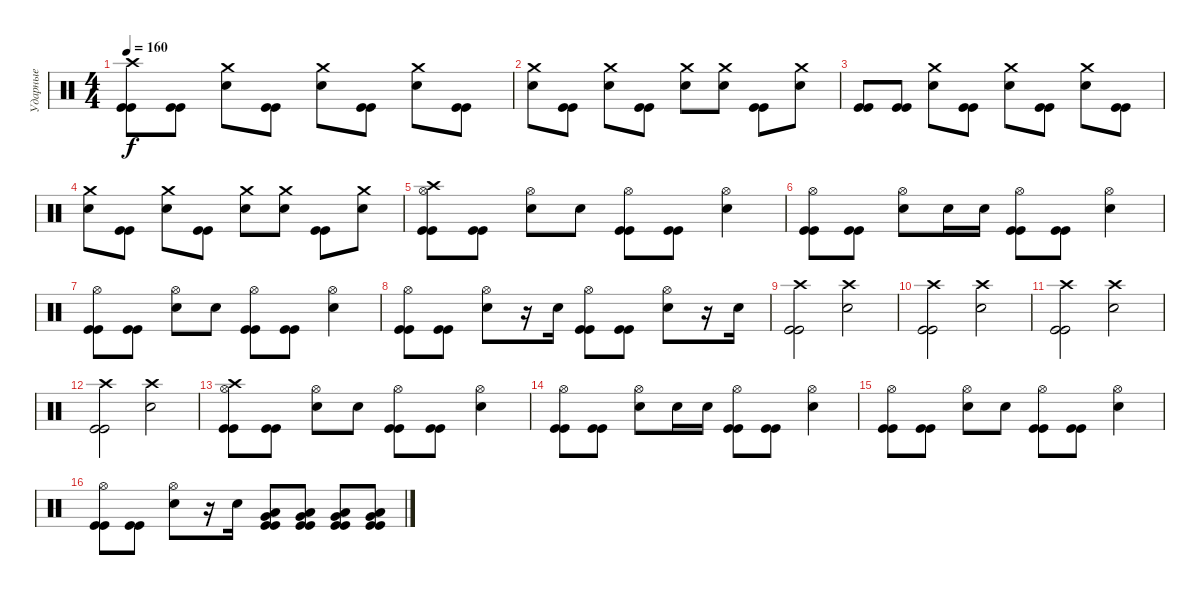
\track ("Ударные" "Ударные") {instrument percussion}
\staff {score}
\articulation defaults
\ts (4 4)
\tempo 160
\clef neutral
\ks c
("Crash high (hit)" "Kick (hit)" "Kick (hit)").8{dy f} ("Kick (hit)" "Kick (hit)").8 ("Crash medium (hit)" "Electric Snare (hit)").8 ("Kick (hit)" "Kick (hit)").8 ("Crash medium (hit)" "Electric Snare (hit)").8 ("Kick (hit)" "Kick (hit)").8 ("Crash medium (hit)" "Electric Snare (hit)").8 ("Kick (hit)" "Kick (hit)").8 |
("Crash medium (hit)" "Electric Snare (hit)").8 ("Kick (hit)" "Kick (hit)").8 ("Crash medium (hit)" "Electric Snare (hit)").8 ("Kick (hit)" "Kick (hit)").8 ("Crash medium (hit)" "Electric Snare (hit)").8 ("Crash medium (hit)" "Electric Snare (hit)").8 ("Kick (hit)" "Kick (hit)").8 ("Crash medium (hit)" "Electric Snare (hit)").8 |
("Kick (hit)" "Kick (hit)").8 ("Kick (hit)" "Kick (hit)").8 ("Crash medium (hit)" "Electric Snare (hit)").8 ("Kick (hit)" "Kick (hit)").8 ("Crash medium (hit)" "Electric Snare (hit)").8 ("Kick (hit)" "Kick (hit)").8 ("Crash medium (hit)" "Electric Snare (hit)").8 ("Kick (hit)" "Kick (hit)").8 |
("Crash medium (hit)" "Electric Snare (hit)").8 ("Kick (hit)" "Kick (hit)").8 ("Crash medium (hit)" "Electric Snare (hit)").8 ("Kick (hit)" "Kick (hit)").8 ("Crash medium (hit)" "Electric Snare (hit)").8 ("Crash medium (hit)" "Electric Snare (hit)").8 ("Kick (hit)" "Kick (hit)").8 ("Crash medium (hit)" "Electric Snare (hit)").8 |
("Crash high (hit)" "Hi-Hat (open)" "Kick (hit)" "Kick (hit)").8 ("Kick (hit)" "Kick (hit)").8 ("Hi-Hat (open)" "Electric Snare (hit)").8 "Electric Snare (hit)".8 ("Hi-Hat (open)" "Kick (hit)" "Kick (hit)").8 ("Kick (hit)" "Kick (hit)").8 ("Hi-Hat (open)" "Electric Snare (hit)").4 |
("Hi-Hat (open)" "Kick (hit)" "Kick (hit)").8 ("Kick (hit)" "Kick (hit)").8 ("Hi-Hat (open)" "Electric Snare (hit)").8 "Electric Snare (hit)".16 "Electric Snare (hit)".16 ("Hi-Hat (open)" "Kick (hit)" "Kick (hit)").8 ("Kick (hit)" "Kick (hit)").8 ("Hi-Hat (open)" "Electric Snare (hit)").4 |
("Hi-Hat (open)" "Kick (hit)" "Kick (hit)").8 ("Kick (hit)" "Kick (hit)").8 ("Hi-Hat (open)" "Electric Snare (hit)").8 "Electric Snare (hit)".8 ("Hi-Hat (open)" "Kick (hit)" "Kick (hit)").8 ("Kick (hit)" "Kick (hit)").8 ("Hi-Hat (open)" "Electric Snare (hit)").4 |
("Hi-Hat (open)" "Kick (hit)" "Kick (hit)").8 ("Kick (hit)" "Kick (hit)").8 ("Hi-Hat (open)" "Electric Snare (hit)").8 r.16 "Electric Snare (hit)".16 ("Hi-Hat (open)" "Kick (hit)" "Kick (hit)").8 ("Kick (hit)" "Kick (hit)").8 ("Hi-Hat (open)" "Electric Snare (hit)").8 r.16 "Electric Snare (hit)".16 |
("Crash high (hit)" "Kick (hit)" "Kick (hit)").2 ("Crash high (hit)" "Electric Snare (hit)").2 |
("Crash high (hit)" "Kick (hit)" "Kick (hit)").2 ("Crash high (hit)" "Electric Snare (hit)").2 |
("Crash high (hit)" "Kick (hit)" "Kick (hit)").2 ("Crash high (hit)" "Electric Snare (hit)").2 |
("Crash high (hit)" "Kick (hit)" "Kick (hit)").2 ("Crash high (hit)" "Electric Snare (hit)").2 |
("Crash high (hit)" "Hi-Hat (open)" "Kick (hit)" "Kick (hit)").8 ("Kick (hit)" "Kick (hit)").8 ("Hi-Hat (open)" "Electric Snare (hit)").8 "Electric Snare (hit)".8 ("Hi-Hat (open)" "Kick (hit)" "Kick (hit)").8 ("Kick (hit)" "Kick (hit)").8 ("Hi-Hat (open)" "Electric Snare (hit)").4 |
("Hi-Hat (open)" "Kick (hit)" "Kick (hit)").8 ("Kick (hit)" "Kick (hit)").8 ("Hi-Hat (open)" "Electric Snare (hit)").8 "Electric Snare (hit)".16 "Electric Snare (hit)".16 ("Hi-Hat (open)" "Kick (hit)" "Kick (hit)").8 ("Kick (hit)" "Kick (hit)").8 ("Hi-Hat (open)" "Electric Snare (hit)").4 |
("Hi-Hat (open)" "Kick (hit)" "Kick (hit)").8 ("Kick (hit)" "Kick (hit)").8 ("Hi-Hat (open)" "Electric Snare (hit)").8 "Electric Snare (hit)".8 ("Hi-Hat (open)" "Kick (hit)" "Kick (hit)").8 ("Kick (hit)" "Kick (hit)").8 ("Hi-Hat (open)" "Electric Snare (hit)").4 |
("Hi-Hat (open)" "Kick (hit)" "Kick (hit)").8 ("Kick (hit)" "Kick (hit)").8 ("Hi-Hat (open)" "Electric Snare (hit)").8 r.16 "Electric Snare (hit)".16 ("Low Floor Tom (hit)" "Very Low Tom (hit)" "Kick (hit)" "Kick (hit)").8 ("Low Floor Tom (hit)" "Very Low Tom (hit)" "Kick (hit)" "Kick (hit)").8 ("Low Floor Tom (hit)" "Very Low Tom (hit)" "Kick (hit)" "Kick (hit)").8 ("Low Floor Tom (hit)" "Very Low Tom (hit)" "Kick (hit)" "Kick (hit)").8
